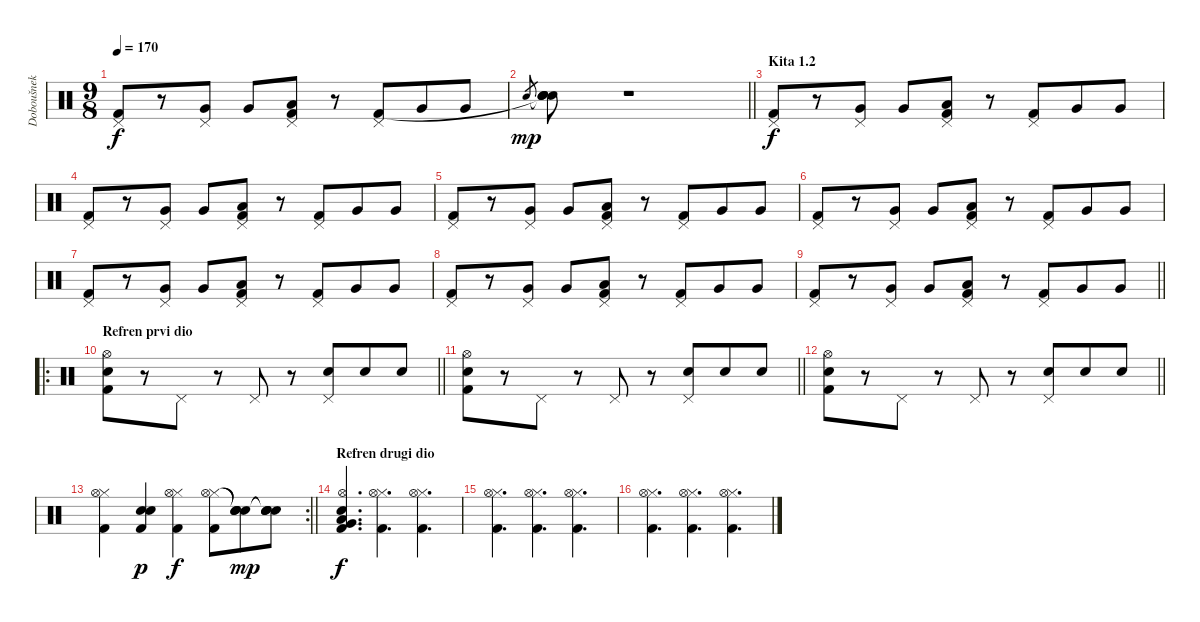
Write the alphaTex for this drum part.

\track ("Doboušnek" "Doboušnek") {instrument percussion}
\staff {score}
\articulation defaults
\ts (9 8)
\tempo 170
\clef neutral
\ks c
("Pedal Hi-Hat (hit)" "Kick (hit) 2").8{dy f} r.8 ("Pedal Hi-Hat (hit)" "Very Low Tom (hit)").8 "Very Low Tom (hit)".8 ("Pedal Hi-Hat (hit)" "Low Tom (hit)" "Kick (hit) 2").8 r.8 ("Pedal Hi-Hat (hit)" "Kick (hit) 2").8 "Very Low Tom (hit)".8 "Very Low Tom (hit)".8 |
\barLineRight lightlight "Electric Snare (hit)".8{gr dy mp}
("Snare (hit)"{t} "Snare (hit)"{t} "Electric Snare (hit)" "Snare (hit) 2").8 r.1 |
\section ("" "Kita 1.2")
("Pedal Hi-Hat (hit)" "Kick (hit) 2").8{dy f} r.8 ("Pedal Hi-Hat (hit)" "Very Low Tom (hit)").8 "Very Low Tom (hit)".8 ("Pedal Hi-Hat (hit)" "Low Tom (hit)" "Kick (hit) 2").8 r.8 ("Pedal Hi-Hat (hit)" "Kick (hit) 2").8 "Very Low Tom (hit)".8 "Very Low Tom (hit)".8 |
("Pedal Hi-Hat (hit)" "Kick (hit) 2").8 r.8 ("Pedal Hi-Hat (hit)" "Very Low Tom (hit)").8 "Very Low Tom (hit)".8 ("Pedal Hi-Hat (hit)" "Low Tom (hit)" "Kick (hit) 2").8 r.8 ("Pedal Hi-Hat (hit)" "Kick (hit) 2").8 "Very Low Tom (hit)".8 "Very Low Tom (hit)".8 |
("Pedal Hi-Hat (hit)" "Kick (hit) 2").8 r.8 ("Pedal Hi-Hat (hit)" "Very Low Tom (hit)").8 "Very Low Tom (hit)".8 ("Pedal Hi-Hat (hit)" "Low Tom (hit)" "Kick (hit) 2").8 r.8 ("Pedal Hi-Hat (hit)" "Kick (hit) 2").8 "Very Low Tom (hit)".8 "Very Low Tom (hit)".8 |
("Pedal Hi-Hat (hit)" "Kick (hit) 2").8 r.8 ("Pedal Hi-Hat (hit)" "Very Low Tom (hit)").8 "Very Low Tom (hit)".8 ("Pedal Hi-Hat (hit)" "Low Tom (hit)" "Kick (hit) 2").8 r.8 ("Pedal Hi-Hat (hit)" "Kick (hit) 2").8 "Very Low Tom (hit)".8 "Very Low Tom (hit)".8 |
("Pedal Hi-Hat (hit)" "Kick (hit) 2").8 r.8 ("Pedal Hi-Hat (hit)" "Very Low Tom (hit)").8 "Very Low Tom (hit)".8 ("Pedal Hi-Hat (hit)" "Low Tom (hit)" "Kick (hit) 2").8 r.8 ("Pedal Hi-Hat (hit)" "Kick (hit) 2").8 "Very Low Tom (hit)".8 "Very Low Tom (hit)".8 |
("Pedal Hi-Hat (hit)" "Kick (hit) 2").8 r.8 ("Pedal Hi-Hat (hit)" "Very Low Tom (hit)").8 "Very Low Tom (hit)".8 ("Pedal Hi-Hat (hit)" "Low Tom (hit)" "Kick (hit) 2").8 r.8 ("Pedal Hi-Hat (hit)" "Kick (hit) 2").8 "Very Low Tom (hit)".8 "Very Low Tom (hit)".8 |
\barLineRight lightlight
("Pedal Hi-Hat (hit)" "Kick (hit) 2").8 r.8 ("Pedal Hi-Hat (hit)" "Very Low Tom (hit)").8 "Very Low Tom (hit)".8 ("Pedal Hi-Hat (hit)" "Low Tom (hit)" "Kick (hit) 2").8 r.8 ("Pedal Hi-Hat (hit)" "Kick (hit) 2").8 "Very Low Tom (hit)".8 "Very Low Tom (hit)".8 |
\ro
\section ("" "Refren prvi dio")
\barLineRight lightlight
("Hi-Hat (open)" "Electric Snare (hit)" "Kick (hit) 2").8 r.8 "Pedal Hi-Hat (hit)".8 r.8 "Pedal Hi-Hat (hit)".8 r.8 ("Pedal Hi-Hat (hit)" "Electric Snare (hit)").8 "Electric Snare (hit)".8 "Electric Snare (hit)".8 |
\barLineRight lightlight
("Hi-Hat (open)" "Electric Snare (hit)" "Kick (hit) 2").8 r.8 "Pedal Hi-Hat (hit)".8 r.8 "Pedal Hi-Hat (hit)".8 r.8 ("Pedal Hi-Hat (hit)" "Electric Snare (hit)").8 "Electric Snare (hit)".8 "Electric Snare (hit)".8 |
\barLineRight lightlight
("Hi-Hat (open)" "Electric Snare (hit)" "Kick (hit) 2").8 r.8 "Pedal Hi-Hat (hit)".8 r.8 "Pedal Hi-Hat (hit)".8 r.8 ("Pedal Hi-Hat (hit)" "Electric Snare (hit)").8 "Electric Snare (hit)".8 "Electric Snare (hit)".8 |
\rc 2
\barLineRight lightlight
("Hi-Hat (closed)" "Hi-Hat (open)" "Kick (hit) 2").4 ("Snare (hit) 2" "Electric Snare (hit)" "Kick (hit) 2").4{dy p} ("Hi-Hat (closed)" "Hi-Hat (open)" "Kick (hit) 2").4{dy f} ("Hi-Hat (closed)" "Hi-Hat (open)" "Kick (hit) 2").8 ("Snare (hit)"{t} "Snare (hit)"{t} "Electric Snare (hit)" "Snare (hit) 2").8{dy mp} ("Snare (hit)"{t} "Snare (hit)"{t} "Electric Snare (hit)" "Snare (hit) 2").8 |
\section ("" "Refren drugi dio")
("Hi-Hat (open)" "Very Low Tom (hit)" "Low Floor Tom (hit)" "Electric Snare (hit)" "Kick (hit) 2").4{d dy f} ("Hi-Hat (closed)" "Hi-Hat (open)" "Kick (hit) 2").4{d} ("Hi-Hat (closed)" "Hi-Hat (open)" "Kick (hit) 2").4{d} |
("Hi-Hat (closed)" "Hi-Hat (open)" "Kick (hit) 2").4{d} ("Hi-Hat (closed)" "Hi-Hat (open)" "Kick (hit) 2").4{d} ("Hi-Hat (closed)" "Hi-Hat (open)" "Kick (hit) 2").4{d} |
("Hi-Hat (closed)" "Hi-Hat (open)" "Kick (hit) 2").4{d} ("Hi-Hat (closed)" "Hi-Hat (open)" "Kick (hit) 2").4{d} ("Hi-Hat (closed)" "Hi-Hat (open)" "Kick (hit) 2").4{d}
